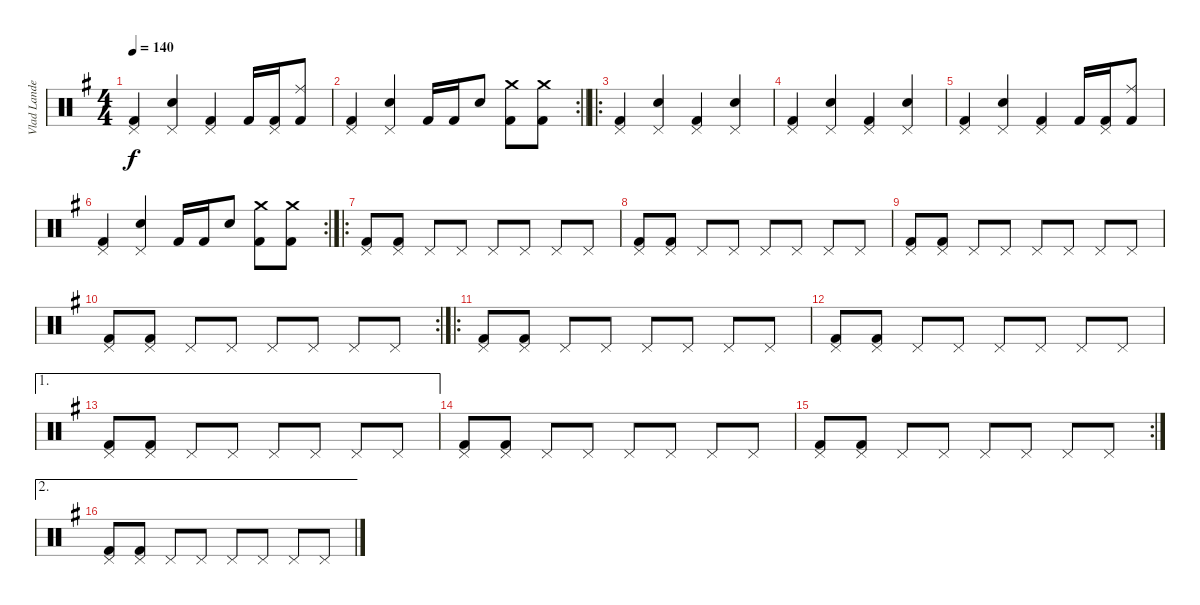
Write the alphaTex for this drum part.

\track ("Vlad Landeros" "Vlad Lande") {instrument percussion}
\staff {score}
\articulation defaults
\ts (4 4)
\tempo 140
\clef neutral
\ks eminor
("Pedal Hi-Hat (hit)" "Kick (hit) 2").4{dy f} ("Pedal Hi-Hat (hit)" "Snare (hit) 2").4 ("Pedal Hi-Hat (hit)" "Kick (hit) 2").4 "Kick (hit) 2".16 ("Pedal Hi-Hat (hit)" "Kick (hit) 2").16 ("Ride (middle)" "Kick (hit) 2").8 |
\rc 2
\barLineRight lightlight
("Pedal Hi-Hat (hit)" "Kick (hit) 2").4 ("Pedal Hi-Hat (hit)" "Snare (hit) 2").4 "Kick (hit) 2".16 "Kick (hit) 2".16 "Snare (hit) 2".8 ("Crash medium (hit)" "Kick (hit) 2").8 ("Crash medium (hit)" "Kick (hit) 2").8 |
\ro
("Pedal Hi-Hat (hit)" "Kick (hit) 2").4 ("Pedal Hi-Hat (hit)" "Snare (hit) 2").4 ("Pedal Hi-Hat (hit)" "Kick (hit) 2").4 ("Pedal Hi-Hat (hit)" "Snare (hit) 2").4 |
("Pedal Hi-Hat (hit)" "Kick (hit) 2").4 ("Pedal Hi-Hat (hit)" "Snare (hit) 2").4 ("Pedal Hi-Hat (hit)" "Kick (hit) 2").4 ("Pedal Hi-Hat (hit)" "Snare (hit) 2").4 |
("Pedal Hi-Hat (hit)" "Kick (hit) 2").4 ("Pedal Hi-Hat (hit)" "Snare (hit) 2").4 ("Pedal Hi-Hat (hit)" "Kick (hit) 2").4 "Kick (hit) 2".16 ("Pedal Hi-Hat (hit)" "Kick (hit) 2").16 ("Ride (middle)" "Kick (hit) 2").8 |
\rc 2
("Pedal Hi-Hat (hit)" "Kick (hit) 2").4 ("Pedal Hi-Hat (hit)" "Snare (hit) 2").4 "Kick (hit) 2".16 "Kick (hit) 2".16 "Snare (hit) 2".8 ("Crash medium (hit)" "Kick (hit) 2").8 ("Crash medium (hit)" "Kick (hit) 2").8 |
\ro
("Pedal Hi-Hat (hit)" "Kick (hit) 2").8 ("Pedal Hi-Hat (hit)" "Kick (hit) 2").8 "Pedal Hi-Hat (hit)".8 "Pedal Hi-Hat (hit)".8 "Pedal Hi-Hat (hit)".8 "Pedal Hi-Hat (hit)".8 "Pedal Hi-Hat (hit)".8 "Pedal Hi-Hat (hit)".8 |
("Pedal Hi-Hat (hit)" "Kick (hit) 2").8 ("Pedal Hi-Hat (hit)" "Kick (hit) 2").8 "Pedal Hi-Hat (hit)".8 "Pedal Hi-Hat (hit)".8 "Pedal Hi-Hat (hit)".8 "Pedal Hi-Hat (hit)".8 "Pedal Hi-Hat (hit)".8 "Pedal Hi-Hat (hit)".8 |
("Pedal Hi-Hat (hit)" "Kick (hit) 2").8 ("Pedal Hi-Hat (hit)" "Kick (hit) 2").8 "Pedal Hi-Hat (hit)".8 "Pedal Hi-Hat (hit)".8 "Pedal Hi-Hat (hit)".8 "Pedal Hi-Hat (hit)".8 "Pedal Hi-Hat (hit)".8 "Pedal Hi-Hat (hit)".8 |
\rc 2
("Pedal Hi-Hat (hit)" "Kick (hit) 2").8 ("Pedal Hi-Hat (hit)" "Kick (hit) 2").8 "Pedal Hi-Hat (hit)".8 "Pedal Hi-Hat (hit)".8 "Pedal Hi-Hat (hit)".8 "Pedal Hi-Hat (hit)".8 "Pedal Hi-Hat (hit)".8 "Pedal Hi-Hat (hit)".8 |
\ro
("Pedal Hi-Hat (hit)" "Kick (hit) 2").8 ("Pedal Hi-Hat (hit)" "Kick (hit) 2").8 "Pedal Hi-Hat (hit)".8 "Pedal Hi-Hat (hit)".8 "Pedal Hi-Hat (hit)".8 "Pedal Hi-Hat (hit)".8 "Pedal Hi-Hat (hit)".8 "Pedal Hi-Hat (hit)".8 |
("Pedal Hi-Hat (hit)" "Kick (hit) 2").8 ("Pedal Hi-Hat (hit)" "Kick (hit) 2").8 "Pedal Hi-Hat (hit)".8 "Pedal Hi-Hat (hit)".8 "Pedal Hi-Hat (hit)".8 "Pedal Hi-Hat (hit)".8 "Pedal Hi-Hat (hit)".8 "Pedal Hi-Hat (hit)".8 |
\ae 1
("Pedal Hi-Hat (hit)" "Kick (hit) 2").8 ("Pedal Hi-Hat (hit)" "Kick (hit) 2").8 "Pedal Hi-Hat (hit)".8 "Pedal Hi-Hat (hit)".8 "Pedal Hi-Hat (hit)".8 "Pedal Hi-Hat (hit)".8 "Pedal Hi-Hat (hit)".8 "Pedal Hi-Hat (hit)".8 |
("Pedal Hi-Hat (hit)" "Kick (hit) 2").8 ("Pedal Hi-Hat (hit)" "Kick (hit) 2").8 "Pedal Hi-Hat (hit)".8 "Pedal Hi-Hat (hit)".8 "Pedal Hi-Hat (hit)".8 "Pedal Hi-Hat (hit)".8 "Pedal Hi-Hat (hit)".8 "Pedal Hi-Hat (hit)".8 |
\rc 2
("Pedal Hi-Hat (hit)" "Kick (hit) 2").8 ("Pedal Hi-Hat (hit)" "Kick (hit) 2").8 "Pedal Hi-Hat (hit)".8 "Pedal Hi-Hat (hit)".8 "Pedal Hi-Hat (hit)".8 "Pedal Hi-Hat (hit)".8 "Pedal Hi-Hat (hit)".8 "Pedal Hi-Hat (hit)".8 |
\ae 2
("Pedal Hi-Hat (hit)" "Kick (hit) 2").8 ("Pedal Hi-Hat (hit)" "Kick (hit) 2").8 "Pedal Hi-Hat (hit)".8 "Pedal Hi-Hat (hit)".8 "Pedal Hi-Hat (hit)".8 "Pedal Hi-Hat (hit)".8 "Pedal Hi-Hat (hit)".8 "Pedal Hi-Hat (hit)".8
